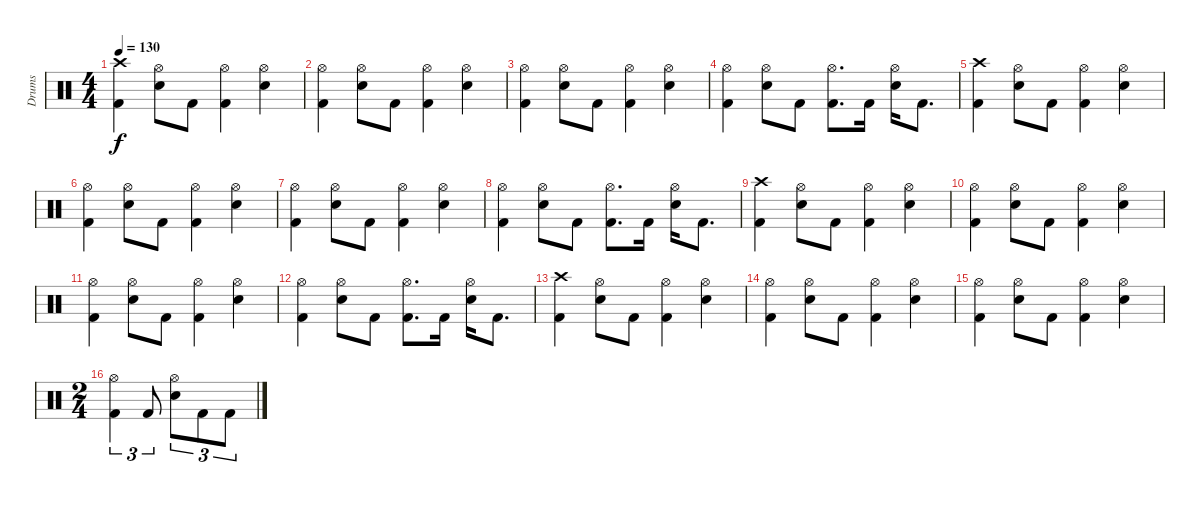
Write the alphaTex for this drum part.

\track ("Drums" "Drums") {instrument percussion}
\staff {score}
\articulation defaults
\ts (4 4)
\tempo 130
\clef neutral
\ks c
("Crash high (hit)" "Kick (hit) 2").4{dy f} ("Hi-Hat (open)" "Electric Snare (hit)").8 "Kick (hit) 2".8 ("Hi-Hat (open)" "Kick (hit) 2").4 ("Hi-Hat (open)" "Electric Snare (hit)").4 |
("Hi-Hat (open)" "Kick (hit) 2").4 ("Hi-Hat (open)" "Electric Snare (hit)").8 "Kick (hit) 2".8 ("Hi-Hat (open)" "Kick (hit) 2").4 ("Hi-Hat (open)" "Electric Snare (hit)").4 |
("Hi-Hat (open)" "Kick (hit) 2").4 ("Hi-Hat (open)" "Electric Snare (hit)").8 "Kick (hit) 2".8 ("Hi-Hat (open)" "Kick (hit) 2").4 ("Hi-Hat (open)" "Electric Snare (hit)").4 |
("Hi-Hat (open)" "Kick (hit) 2").4 ("Hi-Hat (open)" "Electric Snare (hit)").8 "Kick (hit) 2".8 ("Hi-Hat (open)" "Kick (hit) 2").8{d} "Kick (hit) 2".16 ("Hi-Hat (open)" "Electric Snare (hit)").16 "Kick (hit) 2".8{d} |
("Crash high (hit)" "Kick (hit) 2").4 ("Hi-Hat (open)" "Electric Snare (hit)").8 "Kick (hit) 2".8 ("Hi-Hat (open)" "Kick (hit) 2").4 ("Hi-Hat (open)" "Electric Snare (hit)").4 |
("Hi-Hat (open)" "Kick (hit) 2").4 ("Hi-Hat (open)" "Electric Snare (hit)").8 "Kick (hit) 2".8 ("Hi-Hat (open)" "Kick (hit) 2").4 ("Hi-Hat (open)" "Electric Snare (hit)").4 |
("Hi-Hat (open)" "Kick (hit) 2").4 ("Hi-Hat (open)" "Electric Snare (hit)").8 "Kick (hit) 2".8 ("Hi-Hat (open)" "Kick (hit) 2").4 ("Hi-Hat (open)" "Electric Snare (hit)").4 |
("Hi-Hat (open)" "Kick (hit) 2").4 ("Hi-Hat (open)" "Electric Snare (hit)").8 "Kick (hit) 2".8 ("Hi-Hat (open)" "Kick (hit) 2").8{d} "Kick (hit) 2".16 ("Hi-Hat (open)" "Electric Snare (hit)").16 "Kick (hit) 2".8{d} |
("Crash high (hit)" "Kick (hit) 2").4 ("Hi-Hat (open)" "Electric Snare (hit)").8 "Kick (hit) 2".8 ("Hi-Hat (open)" "Kick (hit) 2").4 ("Hi-Hat (open)" "Electric Snare (hit)").4 |
("Hi-Hat (open)" "Kick (hit) 2").4 ("Hi-Hat (open)" "Electric Snare (hit)").8 "Kick (hit) 2".8 ("Hi-Hat (open)" "Kick (hit) 2").4 ("Hi-Hat (open)" "Electric Snare (hit)").4 |
("Hi-Hat (open)" "Kick (hit) 2").4 ("Hi-Hat (open)" "Electric Snare (hit)").8 "Kick (hit) 2".8 ("Hi-Hat (open)" "Kick (hit) 2").4 ("Hi-Hat (open)" "Electric Snare (hit)").4 |
("Hi-Hat (open)" "Kick (hit) 2").4 ("Hi-Hat (open)" "Electric Snare (hit)").8 "Kick (hit) 2".8 ("Hi-Hat (open)" "Kick (hit) 2").8{d} "Kick (hit) 2".16 ("Hi-Hat (open)" "Electric Snare (hit)").16 "Kick (hit) 2".8{d} |
("Crash high (hit)" "Kick (hit) 2").4 ("Hi-Hat (open)" "Electric Snare (hit)").8 "Kick (hit) 2".8 ("Hi-Hat (open)" "Kick (hit) 2").4 ("Hi-Hat (open)" "Electric Snare (hit)").4 |
("Hi-Hat (open)" "Kick (hit) 2").4 ("Hi-Hat (open)" "Electric Snare (hit)").8 "Kick (hit) 2".8 ("Hi-Hat (open)" "Kick (hit) 2").4 ("Hi-Hat (open)" "Electric Snare (hit)").4 |
("Hi-Hat (open)" "Kick (hit) 2").4 ("Hi-Hat (open)" "Electric Snare (hit)").8 "Kick (hit) 2".8 ("Hi-Hat (open)" "Kick (hit) 2").4 ("Hi-Hat (open)" "Electric Snare (hit)").4 |
\ts (2 4)
("Hi-Hat (open)" "Kick (hit) 2").4{tu (3 2)} "Kick (hit) 2".8{tu (3 2)} ("Hi-Hat (open)" "Electric Snare (hit)").8{tu (3 2)} "Kick (hit) 2".8{tu (3 2)} "Kick (hit) 2".8{tu (3 2)}
